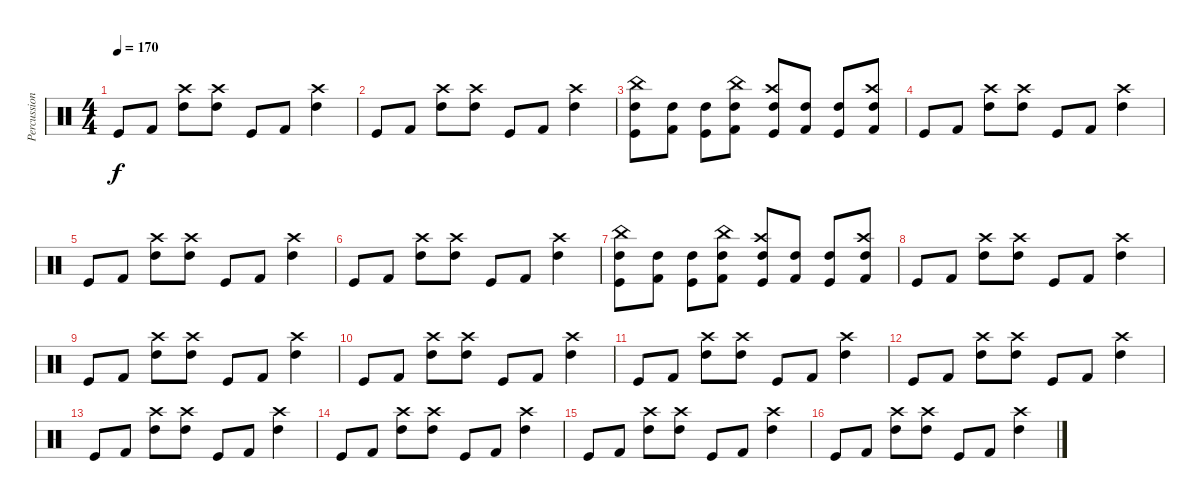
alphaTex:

\track ("Percussions" "Percussion") {instrument percussion}
\staff {score}
\articulation defaults
\ts (4 4)
\tempo 170
\clef neutral
\ks c "Kick (hit)".8{dy f} "Kick (hit) 2".8
("Crash high (hit)" "High Tom (hit)").8 ("Crash high (hit)" "High Tom (hit)").8 "Kick (hit)".8 "Kick (hit) 2".8 ("Crash high (hit)" "High Tom (hit)").4 |
"Kick (hit)".8 "Kick (hit) 2".8 ("Crash high (hit)" "High Tom (hit)").8 ("Crash high (hit)" "High Tom (hit)").8 "Kick (hit)".8 "Kick (hit) 2".8 ("Crash high (hit)" "High Tom (hit)").4 |
("China (hit)" "Kick (hit)" "High Tom (hit)").8 ("Kick (hit) 2" "High Tom (hit)").8 ("Kick (hit)" "High Tom (hit)").8 ("China (hit)" "Kick (hit) 2" "High Tom (hit)").8 ("Crash high (hit)" "Kick (hit)" "High Tom (hit)").8 ("Kick (hit) 2" "High Tom (hit)").8 ("Kick (hit)" "High Tom (hit)").8 ("Crash high (hit)" "Kick (hit) 2" "High Tom (hit)").8 |
"Kick (hit)".8 "Kick (hit) 2".8 ("Crash high (hit)" "High Tom (hit)").8 ("Crash high (hit)" "High Tom (hit)").8 "Kick (hit)".8 "Kick (hit) 2".8 ("Crash high (hit)" "High Tom (hit)").4 |
"Kick (hit)".8 "Kick (hit) 2".8 ("Crash high (hit)" "High Tom (hit)").8 ("Crash high (hit)" "High Tom (hit)").8 "Kick (hit)".8 "Kick (hit) 2".8 ("Crash high (hit)" "High Tom (hit)").4 |
"Kick (hit)".8 "Kick (hit) 2".8 ("Crash high (hit)" "High Tom (hit)").8 ("Crash high (hit)" "High Tom (hit)").8 "Kick (hit)".8 "Kick (hit) 2".8 ("Crash high (hit)" "High Tom (hit)").4 |
("China (hit)" "Kick (hit)" "High Tom (hit)").8 ("Kick (hit) 2" "High Tom (hit)").8 ("Kick (hit)" "High Tom (hit)").8 ("China (hit)" "Kick (hit) 2" "High Tom (hit)").8 ("Crash high (hit)" "Kick (hit)" "High Tom (hit)").8 ("Kick (hit) 2" "High Tom (hit)").8 ("Kick (hit)" "High Tom (hit)").8 ("Crash high (hit)" "Kick (hit) 2" "High Tom (hit)").8 |
"Kick (hit)".8 "Kick (hit) 2".8 ("Crash high (hit)" "High Tom (hit)").8 ("Crash high (hit)" "High Tom (hit)").8 "Kick (hit)".8 "Kick (hit) 2".8 ("Crash high (hit)" "High Tom (hit)").4 |
"Kick (hit)".8 "Kick (hit) 2".8 ("Crash high (hit)" "High Tom (hit)").8 ("Crash high (hit)" "High Tom (hit)").8 "Kick (hit)".8 "Kick (hit) 2".8 ("Crash high (hit)" "High Tom (hit)").4 |
"Kick (hit)".8 "Kick (hit) 2".8 ("Crash high (hit)" "High Tom (hit)").8 ("Crash high (hit)" "High Tom (hit)").8 "Kick (hit)".8 "Kick (hit) 2".8 ("Crash high (hit)" "High Tom (hit)").4 |
"Kick (hit)".8 "Kick (hit) 2".8 ("Crash high (hit)" "High Tom (hit)").8 ("Crash high (hit)" "High Tom (hit)").8 "Kick (hit)".8 "Kick (hit) 2".8 ("Crash high (hit)" "High Tom (hit)").4 |
"Kick (hit)".8 "Kick (hit) 2".8 ("Crash high (hit)" "High Tom (hit)").8 ("Crash high (hit)" "High Tom (hit)").8 "Kick (hit)".8 "Kick (hit) 2".8 ("Crash high (hit)" "High Tom (hit)").4 |
"Kick (hit)".8 "Kick (hit) 2".8 ("Crash high (hit)" "High Tom (hit)").8 ("Crash high (hit)" "High Tom (hit)").8 "Kick (hit)".8 "Kick (hit) 2".8 ("Crash high (hit)" "High Tom (hit)").4 |
"Kick (hit)".8 "Kick (hit) 2".8 ("Crash high (hit)" "High Tom (hit)").8 ("Crash high (hit)" "High Tom (hit)").8 "Kick (hit)".8 "Kick (hit) 2".8 ("Crash high (hit)" "High Tom (hit)").4 |
"Kick (hit)".8 "Kick (hit) 2".8 ("Crash high (hit)" "High Tom (hit)").8 ("Crash high (hit)" "High Tom (hit)").8 "Kick (hit)".8 "Kick (hit) 2".8 ("Crash high (hit)" "High Tom (hit)").4 |
"Kick (hit)".8 "Kick (hit) 2".8 ("Crash high (hit)" "High Tom (hit)").8 ("Crash high (hit)" "High Tom (hit)").8 "Kick (hit)".8 "Kick (hit) 2".8 ("Crash high (hit)" "High Tom (hit)").4
